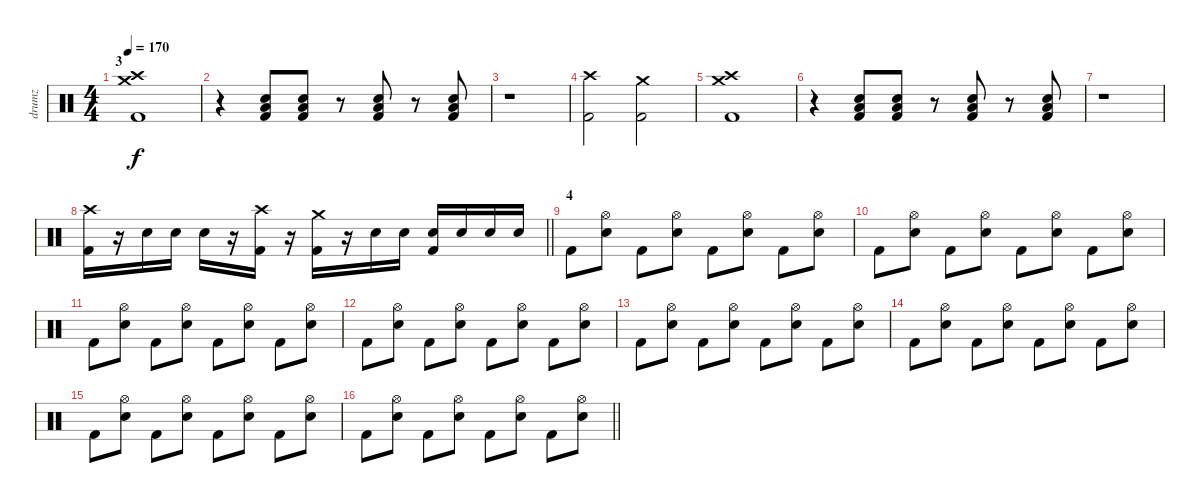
\track ("drumz" "drumz") {instrument percussion}
\staff {score}
\articulation defaults
\ts (4 4)
\section ("" "3")
\tempo 170
\clef neutral
\ks c
("Crash high (hit)" "Crash medium (hit)" "Kick (hit) 2").1{dy f} |
r.4 ("Low Floor Tom (hit)" "Electric Snare (hit)" "Kick (hit) 2").8 ("Low Floor Tom (hit)" "Electric Snare (hit)" "Kick (hit) 2").8 r.8 ("Low Floor Tom (hit)" "Electric Snare (hit)" "Kick (hit) 2").8 r.8 ("Low Floor Tom (hit)" "Electric Snare (hit)" "Kick (hit) 2").8 |
r.1 |
("Crash high (hit)" "Kick (hit) 2").2 ("Crash medium (hit)" "Kick (hit) 2").2 |
("Crash high (hit)" "Crash medium (hit)" "Kick (hit) 2").1 |
r.4 ("Low Floor Tom (hit)" "Electric Snare (hit)" "Kick (hit) 2").8 ("Low Floor Tom (hit)" "Electric Snare (hit)" "Kick (hit) 2").8 r.8 ("Low Floor Tom (hit)" "Electric Snare (hit)" "Kick (hit) 2").8 r.8 ("Low Floor Tom (hit)" "Electric Snare (hit)" "Kick (hit) 2").8 |
r.1 |
\barLineRight lightlight
("Crash high (hit)" "Kick (hit) 2").16 r.16 "Electric Snare (hit)".16 "Electric Snare (hit)".16 "Electric Snare (hit)".16 r.16 ("Crash high (hit)" "Kick (hit) 2").16 r.16 ("Crash medium (hit)" "Kick (hit) 2").16 r.16 "Electric Snare (hit)".16 "Electric Snare (hit)".16 ("Electric Snare (hit)" "Kick (hit) 2").16 "Electric Snare (hit)".16 "Electric Snare (hit)".16 "Electric Snare (hit)".16 |
\section ("" "4")
"Kick (hit) 2".8 ("Hi-Hat (open)" "Electric Snare (hit)").8 "Kick (hit) 2".8 ("Hi-Hat (open)" "Electric Snare (hit)").8 "Kick (hit) 2".8 ("Hi-Hat (open)" "Electric Snare (hit)").8 "Kick (hit) 2".8 ("Hi-Hat (open)" "Electric Snare (hit)").8 |
"Kick (hit) 2".8 ("Hi-Hat (open)" "Electric Snare (hit)").8 "Kick (hit) 2".8 ("Hi-Hat (open)" "Electric Snare (hit)").8 "Kick (hit) 2".8 ("Hi-Hat (open)" "Electric Snare (hit)").8 "Kick (hit) 2".8 ("Hi-Hat (open)" "Electric Snare (hit)").8 |
"Kick (hit) 2".8 ("Hi-Hat (open)" "Electric Snare (hit)").8 "Kick (hit) 2".8 ("Hi-Hat (open)" "Electric Snare (hit)").8 "Kick (hit) 2".8 ("Hi-Hat (open)" "Electric Snare (hit)").8 "Kick (hit) 2".8 ("Hi-Hat (open)" "Electric Snare (hit)").8 |
"Kick (hit) 2".8 ("Hi-Hat (open)" "Electric Snare (hit)").8 "Kick (hit) 2".8 ("Hi-Hat (open)" "Electric Snare (hit)").8 "Kick (hit) 2".8 ("Hi-Hat (open)" "Electric Snare (hit)").8 "Kick (hit) 2".8 ("Hi-Hat (open)" "Electric Snare (hit)").8 |
"Kick (hit) 2".8 ("Hi-Hat (open)" "Electric Snare (hit)").8 "Kick (hit) 2".8 ("Hi-Hat (open)" "Electric Snare (hit)").8 "Kick (hit) 2".8 ("Hi-Hat (open)" "Electric Snare (hit)").8 "Kick (hit) 2".8 ("Hi-Hat (open)" "Electric Snare (hit)").8 |
"Kick (hit) 2".8 ("Hi-Hat (open)" "Electric Snare (hit)").8 "Kick (hit) 2".8 ("Hi-Hat (open)" "Electric Snare (hit)").8 "Kick (hit) 2".8 ("Hi-Hat (open)" "Electric Snare (hit)").8 "Kick (hit) 2".8 ("Hi-Hat (open)" "Electric Snare (hit)").8 |
"Kick (hit) 2".8 ("Hi-Hat (open)" "Electric Snare (hit)").8 "Kick (hit) 2".8 ("Hi-Hat (open)" "Electric Snare (hit)").8 "Kick (hit) 2".8 ("Hi-Hat (open)" "Electric Snare (hit)").8 "Kick (hit) 2".8 ("Hi-Hat (open)" "Electric Snare (hit)").8 |
\barLineRight lightlight "Kick (hit) 2".8
("Hi-Hat (open)" "Electric Snare (hit)").8 "Kick (hit) 2".8 ("Hi-Hat (open)" "Electric Snare (hit)").8 "Kick (hit) 2".8 ("Hi-Hat (open)" "Electric Snare (hit)").8 "Kick (hit) 2".8 ("Hi-Hat (open)" "Electric Snare (hit)").8
